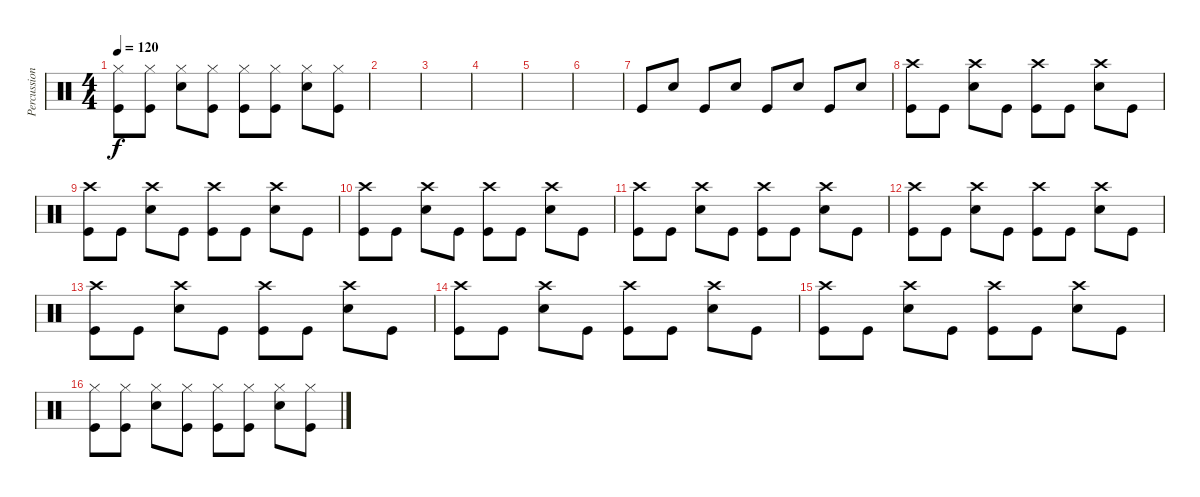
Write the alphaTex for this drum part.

\track ("Percussion" "Percussion") {instrument percussion}
\staff {score}
\articulation defaults
\ts (4 4)
\tempo 120
\clef neutral
\ks c
("Hi-Hat (closed)" "Kick (hit)").8{dy f} ("Hi-Hat (closed)" "Kick (hit)").8 ("Hi-Hat (closed)" "Snare (hit) 2").8 ("Hi-Hat (closed)" "Kick (hit)").8 ("Hi-Hat (closed)" "Kick (hit)").8 ("Hi-Hat (closed)" "Kick (hit)").8 ("Hi-Hat (closed)" "Snare (hit) 2").8 ("Hi-Hat (closed)" "Kick (hit)").8 |
|
|
|
|
|
"Kick (hit)".8 "Snare (hit) 2".8 "Kick (hit)".8 "Snare (hit) 2".8 "Kick (hit)".8 "Snare (hit) 2".8 "Kick (hit)".8 "Snare (hit) 2".8 |
("Crash high (hit)" "Kick (hit)").8 "Kick (hit)".8 ("Crash high (hit)" "Snare (hit) 2").8 "Kick (hit)".8 ("Crash high (hit)" "Kick (hit)").8 "Kick (hit)".8 ("Crash high (hit)" "Snare (hit) 2").8 "Kick (hit)".8 |
("Crash high (hit)" "Kick (hit)").8 "Kick (hit)".8 ("Crash high (hit)" "Snare (hit) 2").8 "Kick (hit)".8 ("Crash high (hit)" "Kick (hit)").8 "Kick (hit)".8 ("Crash high (hit)" "Snare (hit) 2").8 "Kick (hit)".8 |
("Crash high (hit)" "Kick (hit)").8 "Kick (hit)".8 ("Crash high (hit)" "Snare (hit) 2").8 "Kick (hit)".8 ("Crash high (hit)" "Kick (hit)").8 "Kick (hit)".8 ("Crash high (hit)" "Snare (hit) 2").8 "Kick (hit)".8 |
("Crash high (hit)" "Kick (hit)").8 "Kick (hit)".8 ("Crash high (hit)" "Snare (hit) 2").8 "Kick (hit)".8 ("Crash high (hit)" "Kick (hit)").8 "Kick (hit)".8 ("Crash high (hit)" "Snare (hit) 2").8 "Kick (hit)".8 |
("Crash high (hit)" "Kick (hit)").8 "Kick (hit)".8 ("Crash high (hit)" "Snare (hit) 2").8 "Kick (hit)".8 ("Crash high (hit)" "Kick (hit)").8 "Kick (hit)".8 ("Crash high (hit)" "Snare (hit) 2").8 "Kick (hit)".8 |
("Crash high (hit)" "Kick (hit)").8 "Kick (hit)".8 ("Crash high (hit)" "Snare (hit) 2").8 "Kick (hit)".8 ("Crash high (hit)" "Kick (hit)").8 "Kick (hit)".8 ("Crash high (hit)" "Snare (hit) 2").8 "Kick (hit)".8 |
("Crash high (hit)" "Kick (hit)").8 "Kick (hit)".8 ("Crash high (hit)" "Snare (hit) 2").8 "Kick (hit)".8 ("Crash high (hit)" "Kick (hit)").8 "Kick (hit)".8 ("Crash high (hit)" "Snare (hit) 2").8 "Kick (hit)".8 |
("Crash high (hit)" "Kick (hit)").8 "Kick (hit)".8 ("Crash high (hit)" "Snare (hit) 2").8 "Kick (hit)".8 ("Crash high (hit)" "Kick (hit)").8 "Kick (hit)".8 ("Crash high (hit)" "Snare (hit) 2").8 "Kick (hit)".8 |
("Hi-Hat (closed)" "Kick (hit)").8 ("Hi-Hat (closed)" "Kick (hit)").8 ("Hi-Hat (closed)" "Snare (hit) 2").8 ("Hi-Hat (closed)" "Kick (hit)").8 ("Hi-Hat (closed)" "Kick (hit)").8 ("Hi-Hat (closed)" "Kick (hit)").8 ("Hi-Hat (closed)" "Snare (hit) 2").8 ("Hi-Hat (closed)" "Kick (hit)").8
